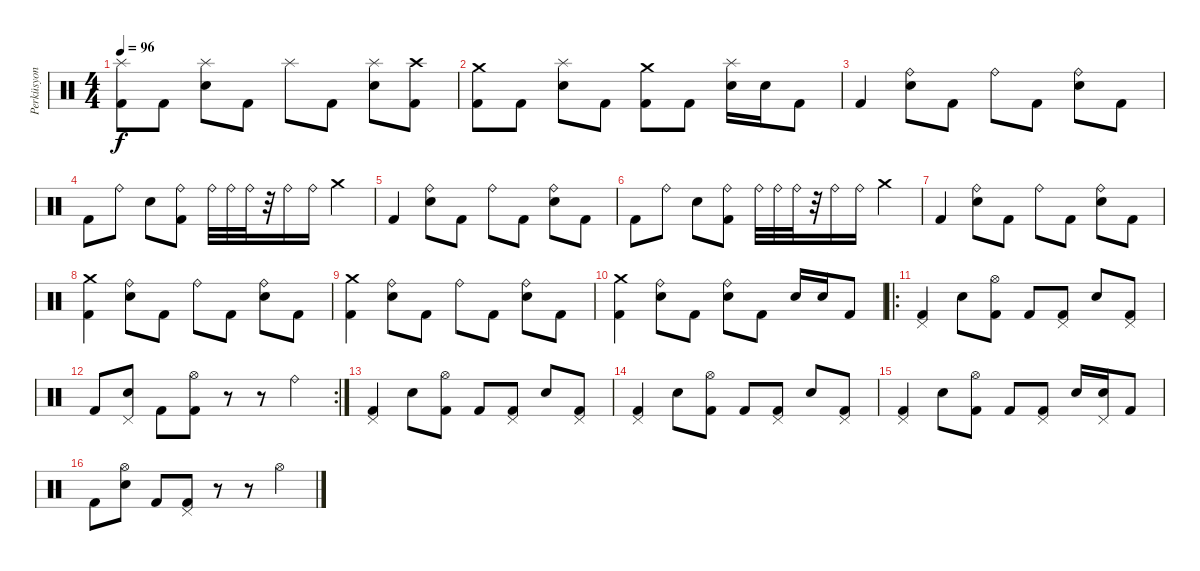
\track ("Perküsyon" "Perküsyon") {instrument percussion}
\staff {score}
\articulation defaults
\ts (4 4)
\tempo 96
\clef neutral
\ks c
("Kick (hit) 2" "Splash (hit)").8{dy f} "Kick (hit) 2".8 ("Snare (hit) 2" "Splash (hit)").8 "Kick (hit) 2".8 "Splash (hit)".8 "Kick (hit) 2".8 ("Snare (hit) 2" "Splash (hit)").8 ("Kick (hit) 2" "Crash high (hit)").8 |
("Kick (hit) 2" "Crash medium (hit)").8 "Kick (hit) 2".8 ("Snare (hit) 2" "Splash (hit)").8 "Kick (hit) 2".8 ("Kick (hit) 2" "Crash medium (hit)").8 "Kick (hit) 2".8 ("Snare (hit) 2" "Splash (hit)").16 "Snare (hit) 2".16 "Kick (hit) 2".8 |
"Kick (hit) 2".4 ("Snare (hit) 2" "Ride (bell)").8 "Kick (hit) 2".8 "Ride (bell)".8 "Kick (hit) 2".8 ("Snare (hit) 2" "Ride (bell)").8 "Kick (hit) 2".8 |
"Kick (hit) 2".8 "Ride (bell)".8 "Snare (hit) 2".8 ("Kick (hit) 2" "Ride (bell)").8 "Ride (bell)".32 "Ride (bell)".32 "Ride (bell)".32 r.32 "Ride (bell)".16 "Ride (bell)".16 "Crash medium (hit)".4 |
"Kick (hit) 2".4 ("Snare (hit) 2" "Ride (bell)").8 "Kick (hit) 2".8 "Ride (bell)".8 "Kick (hit) 2".8 ("Snare (hit) 2" "Ride (bell)").8 "Kick (hit) 2".8 |
"Kick (hit) 2".8 "Ride (bell)".8 "Snare (hit) 2".8 ("Kick (hit) 2" "Ride (bell)").8 "Ride (bell)".32 "Ride (bell)".32 "Ride (bell)".32 r.32 "Ride (bell)".16 "Ride (bell)".16 "Crash medium (hit)".4 |
"Kick (hit) 2".4 ("Snare (hit) 2" "Ride (bell)").8 "Kick (hit) 2".8 "Ride (bell)".8 "Kick (hit) 2".8 ("Snare (hit) 2" "Ride (bell)").8 "Kick (hit) 2".8 |
("Kick (hit) 2" "Crash medium (hit)").4 ("Snare (hit) 2" "Ride (bell)").8 "Kick (hit) 2".8 "Ride (bell)".8 "Kick (hit) 2".8 ("Snare (hit) 2" "Ride (bell)").8 "Kick (hit) 2".8 |
("Kick (hit) 2" "Crash medium (hit)").4 ("Snare (hit) 2" "Ride (bell)").8 "Kick (hit) 2".8 "Ride (bell)".8 "Kick (hit) 2".8 ("Snare (hit) 2" "Ride (bell)").8 "Kick (hit) 2".8 |
("Kick (hit) 2" "Crash medium (hit)").4 ("Snare (hit) 2" "Ride (bell)").8 "Kick (hit) 2".8 ("Snare (hit) 2" "Ride (bell)").8 "Kick (hit) 2".8 "Snare (hit) 2".16 "Snare (hit) 2".16 "Kick (hit) 2".8 |
\ro
("Kick (hit) 2" "Pedal Hi-Hat (hit)").4 "Snare (hit) 2".8 ("Kick (hit) 2" "Hi-Hat (open)").8 "Kick (hit) 2".8 ("Kick (hit) 2" "Pedal Hi-Hat (hit)").8 "Snare (hit) 2".8 ("Kick (hit) 2" "Pedal Hi-Hat (hit)").8 |
\rc 2 "Kick (hit) 2".8
("Snare (hit) 2" "Pedal Hi-Hat (hit)").8 "Kick (hit) 2".8 ("Kick (hit) 2" "Hi-Hat (open)").8 r.8 r.8 "Ride (bell)".4 |
("Kick (hit) 2" "Pedal Hi-Hat (hit)").4 "Snare (hit) 2".8 ("Kick (hit) 2" "Hi-Hat (open)").8 "Kick (hit) 2".8 ("Kick (hit) 2" "Pedal Hi-Hat (hit)").8 "Snare (hit) 2".8 ("Kick (hit) 2" "Pedal Hi-Hat (hit)").8 |
("Kick (hit) 2" "Pedal Hi-Hat (hit)").4 "Snare (hit) 2".8 ("Kick (hit) 2" "Hi-Hat (open)").8 "Kick (hit) 2".8 ("Kick (hit) 2" "Pedal Hi-Hat (hit)").8 "Snare (hit) 2".8 ("Kick (hit) 2" "Pedal Hi-Hat (hit)").8 |
("Kick (hit) 2" "Pedal Hi-Hat (hit)").4 "Snare (hit) 2".8 ("Kick (hit) 2" "Hi-Hat (open)").8 "Kick (hit) 2".8 ("Kick (hit) 2" "Pedal Hi-Hat (hit)").8 "Snare (hit) 2".16 ("Snare (hit) 2" "Pedal Hi-Hat (hit)").16 "Kick (hit) 2".8 |
"Kick (hit) 2".8 ("Snare (hit) 2" "Hi-Hat (open)").8 "Kick (hit) 2".8 ("Kick (hit) 2" "Pedal Hi-Hat (hit)").8 r.8 r.8 "Hi-Hat (open)".4
